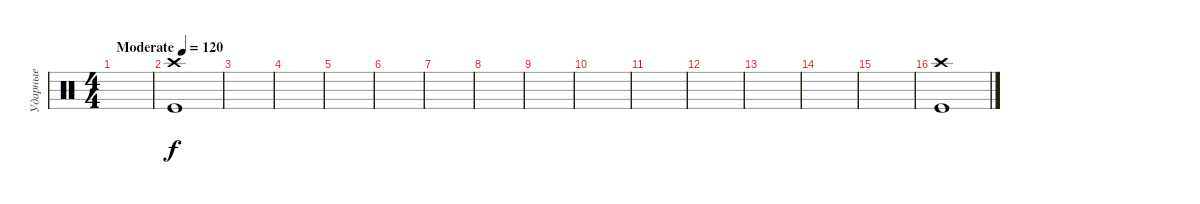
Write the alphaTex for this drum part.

\track ("Ударные" "Ударные") {instrument percussion}
\staff {score}
\articulation defaults
\ts (4 4)
\tempo (120 "Moderate")
\clef neutral
\ks c
|
("Crash high (hit)" "Kick (hit)").1 |
|
|
|
|
|
|
|
|
|
|
|
|
|
("Crash high (hit)" "Kick (hit)").1
